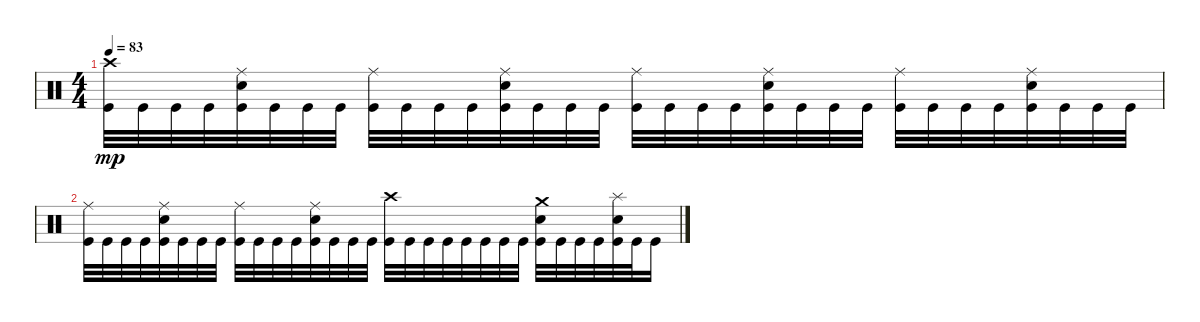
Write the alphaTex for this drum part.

\track "" {instrument percussion}
\staff {score}
\articulation defaults
\ts (4 4)
\tempo 83
\clef neutral
\ks c
("Kick (hit)" "Crash high (hit)").32{dy mp} "Kick (hit)".32 "Kick (hit)".32 "Kick (hit)".32 ("Snare (hit) 2" "Ride (middle)" "Kick (hit)").32 "Kick (hit)".32 "Kick (hit)".32 "Kick (hit)".32 ("Kick (hit)" "Ride (middle)").32 "Kick (hit)".32 "Kick (hit)".32 "Kick (hit)".32 ("Snare (hit) 2" "Ride (middle)" "Kick (hit)").32 "Kick (hit)".32 "Kick (hit)".32 "Kick (hit)".32 ("Kick (hit)" "Ride (middle)").32 "Kick (hit)".32 "Kick (hit)".32 "Kick (hit)".32 ("Snare (hit) 2" "Ride (middle)" "Kick (hit)").32 "Kick (hit)".32 "Kick (hit)".32 "Kick (hit)".32 ("Kick (hit)" "Ride (middle)").32 "Kick (hit)".32 "Kick (hit)".32 "Kick (hit)".32 ("Snare (hit) 2" "Ride (middle)" "Kick (hit)").32 "Kick (hit)".32 "Kick (hit)".32 "Kick (hit)".32 |
("Kick (hit)" "Ride (middle)").32 "Kick (hit)".32 "Kick (hit)".32 "Kick (hit)".32 ("Snare (hit) 2" "Ride (middle)" "Kick (hit)").32 "Kick (hit)".32 "Kick (hit)".32 "Kick (hit)".32 ("Kick (hit)" "Ride (middle)").32 "Kick (hit)".32 "Kick (hit)".32 "Kick (hit)".32 ("Snare (hit) 2" "Ride (middle)" "Kick (hit)").32 "Kick (hit)".32 "Kick (hit)".32 "Kick (hit)".32 ("Crash high (hit)" "Kick (hit)").32 "Kick (hit)".32 "Kick (hit)".32 "Kick (hit)".32 "Kick (hit)".32 "Kick (hit)".32 "Kick (hit)".32 "Kick (hit)".32 ("Snare (hit) 2" "Crash medium (hit)" "Kick (hit)").32 "Kick (hit)".32 "Kick (hit)".32 "Kick (hit)".32 ("Snare (hit) 2" "Splash (hit)" "Kick (hit)").32 "Kick (hit)".32 "Kick (hit)".16
